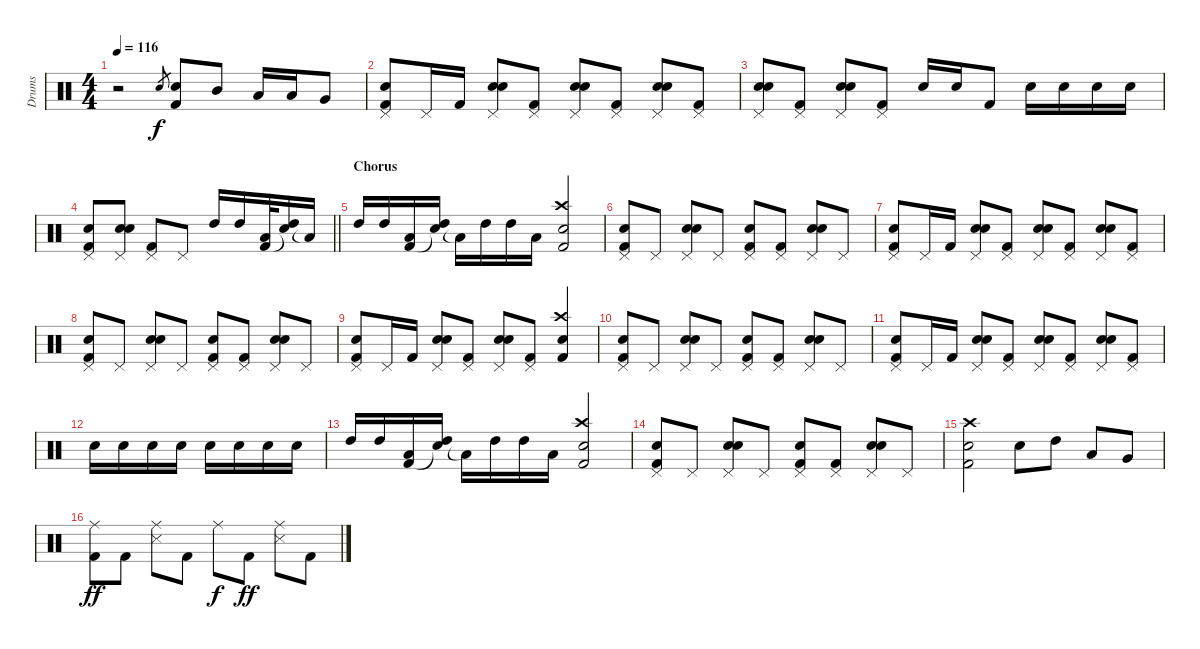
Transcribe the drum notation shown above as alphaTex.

\track ("Drums" "Drums") {instrument percussion}
\staff {score}
\articulation defaults
\ts (4 4)
\tempo 116
\clef neutral
\ks c
r.2{dy f} "Snare (hit) 2".8{gr} ("Snare (hit) 2" "Kick (hit) 2").8 "Mid Tom (hit)".8 "Low Tom (hit)".16 "Low Tom (hit)".16 "Very Low Tom (hit)".8 |
("Hand Clap (hit)" "Pedal Hi-Hat (hit)" "Kick (hit) 2").8{volume 16} "Pedal Hi-Hat (hit)".16{volume 16} "Kick (hit) 2".16{volume 16} ("Hand Clap (hit)" "Pedal Hi-Hat (hit)" "Snare (hit) 2").8{volume 16} ("Pedal Hi-Hat (hit)" "Kick (hit) 2").8{volume 16} ("Hand Clap (hit)" "Pedal Hi-Hat (hit)" "Snare (hit) 2").8{volume 16} ("Pedal Hi-Hat (hit)" "Kick (hit) 2").8{volume 16} ("Hand Clap (hit)" "Pedal Hi-Hat (hit)" "Snare (hit) 2").8 ("Pedal Hi-Hat (hit)" "Kick (hit) 2").8 |
("Hand Clap (hit)" "Pedal Hi-Hat (hit)" "Snare (hit) 2").8 ("Pedal Hi-Hat (hit)" "Kick (hit) 2").8 ("Hand Clap (hit)" "Pedal Hi-Hat (hit)" "Snare (hit) 2").8 ("Pedal Hi-Hat (hit)" "Kick (hit) 2").8 "Snare (hit) 2".16 "Snare (hit) 2".16 "Kick (hit) 2".8 "Snare (hit) 2".16 "Snare (hit) 2".16 "Snare (hit) 2".16 "Snare (hit) 2".16 |
\barLineRight lightlight
("Hand Clap (hit)" "Pedal Hi-Hat (hit)" "Kick (hit) 2").8 ("Hand Clap (hit)" "Pedal Hi-Hat (hit)" "Snare (hit) 2").8 ("Pedal Hi-Hat (hit)" "Kick (hit) 2").8 "Pedal Hi-Hat (hit)".8 "High Tom (hit)".16 "High Tom (hit)".16 ("Low Tom (hit)" "Kick (hit) 2").32 ("High Tom (hit)" "Snare (hit)"{t}).16 "Low Tom (hit)"{t}.16 |
\section ("" "Chorus")
"High Tom (hit)".16 "High Tom (hit)".16 ("Low Tom (hit)" "Kick (hit) 2").16 ("High Tom (hit)" "Snare (hit)"{t}).16 "Low Tom (hit)"{t}.16 "High Tom (hit)".16 "High Tom (hit)".16 "Low Tom (hit)".16 ("Crash high (hit)" "Electric Snare (hit)" "Kick (hit) 2").2 |
("Hand Clap (hit)" "Pedal Hi-Hat (hit)" "Kick (hit) 2").8 "Pedal Hi-Hat (hit)".8 ("Hand Clap (hit)" "Pedal Hi-Hat (hit)" "Snare (hit) 2").8 "Pedal Hi-Hat (hit)".8 ("Hand Clap (hit)" "Pedal Hi-Hat (hit)" "Kick (hit) 2").8 ("Pedal Hi-Hat (hit)" "Kick (hit) 2").8 ("Hand Clap (hit)" "Pedal Hi-Hat (hit)" "Snare (hit) 2").8 "Pedal Hi-Hat (hit)".8{volume 16} |
("Hand Clap (hit)" "Pedal Hi-Hat (hit)" "Kick (hit) 2").8 "Pedal Hi-Hat (hit)".16 "Kick (hit) 2".16 ("Hand Clap (hit)" "Pedal Hi-Hat (hit)" "Snare (hit) 2").8 ("Pedal Hi-Hat (hit)" "Kick (hit) 2").8 ("Hand Clap (hit)" "Pedal Hi-Hat (hit)" "Snare (hit) 2").8 ("Pedal Hi-Hat (hit)" "Kick (hit) 2").8 ("Hand Clap (hit)" "Pedal Hi-Hat (hit)" "Snare (hit) 2").8 ("Pedal Hi-Hat (hit)" "Kick (hit) 2").8 |
("Hand Clap (hit)" "Pedal Hi-Hat (hit)" "Kick (hit) 2").8 "Pedal Hi-Hat (hit)".8 ("Hand Clap (hit)" "Pedal Hi-Hat (hit)" "Snare (hit) 2").8 "Pedal Hi-Hat (hit)".8 ("Hand Clap (hit)" "Pedal Hi-Hat (hit)" "Kick (hit) 2").8 ("Pedal Hi-Hat (hit)" "Kick (hit) 2").8 ("Hand Clap (hit)" "Pedal Hi-Hat (hit)" "Snare (hit) 2").8 "Pedal Hi-Hat (hit)".8{volume 16} |
("Hand Clap (hit)" "Pedal Hi-Hat (hit)" "Kick (hit) 2").8 "Pedal Hi-Hat (hit)".16 "Kick (hit) 2".16 ("Hand Clap (hit)" "Pedal Hi-Hat (hit)" "Snare (hit) 2").8 ("Pedal Hi-Hat (hit)" "Kick (hit) 2").8 ("Hand Clap (hit)" "Pedal Hi-Hat (hit)" "Snare (hit) 2").8 ("Pedal Hi-Hat (hit)" "Kick (hit) 2").8 ("Crash high (hit)" "Electric Snare (hit)" "Kick (hit) 2").4 |
("Hand Clap (hit)" "Pedal Hi-Hat (hit)" "Kick (hit) 2").8 "Pedal Hi-Hat (hit)".8 ("Hand Clap (hit)" "Pedal Hi-Hat (hit)" "Snare (hit) 2").8 "Pedal Hi-Hat (hit)".8 ("Hand Clap (hit)" "Pedal Hi-Hat (hit)" "Kick (hit) 2").8 ("Pedal Hi-Hat (hit)" "Kick (hit) 2").8 ("Hand Clap (hit)" "Pedal Hi-Hat (hit)" "Snare (hit) 2").8 "Pedal Hi-Hat (hit)".8 |
("Hand Clap (hit)" "Pedal Hi-Hat (hit)" "Kick (hit) 2").8 "Pedal Hi-Hat (hit)".16 "Kick (hit) 2".16 ("Hand Clap (hit)" "Pedal Hi-Hat (hit)" "Snare (hit) 2").8 ("Pedal Hi-Hat (hit)" "Kick (hit) 2").8 ("Hand Clap (hit)" "Pedal Hi-Hat (hit)" "Snare (hit) 2").8 ("Pedal Hi-Hat (hit)" "Kick (hit) 2").8 ("Hand Clap (hit)" "Pedal Hi-Hat (hit)" "Snare (hit) 2").8 ("Pedal Hi-Hat (hit)" "Kick (hit) 2").8 |
"Snare (hit) 2".16 "Snare (hit) 2".16 "Snare (hit) 2".16 "Snare (hit) 2".16 "Snare (hit) 2".16 "Snare (hit) 2".16 "Snare (hit) 2".16 "Snare (hit) 2".16 |
"High Tom (hit)".16 "High Tom (hit)".16 ("Low Tom (hit)" "Kick (hit) 2").16 ("High Tom (hit)" "Snare (hit)"{t}).16 "Low Tom (hit)"{t}.16 "High Tom (hit)".16 "High Tom (hit)".16 "Low Tom (hit)".16{volume 16} ("Crash high (hit)" "Electric Snare (hit)" "Kick (hit) 2").2 |
("Hand Clap (hit)" "Pedal Hi-Hat (hit)" "Kick (hit) 2").8 "Pedal Hi-Hat (hit)".8 ("Hand Clap (hit)" "Pedal Hi-Hat (hit)" "Snare (hit) 2").8 "Pedal Hi-Hat (hit)".8 ("Hand Clap (hit)" "Pedal Hi-Hat (hit)" "Kick (hit) 2").8 ("Pedal Hi-Hat (hit)" "Kick (hit) 2").8 ("Hand Clap (hit)" "Pedal Hi-Hat (hit)" "Snare (hit) 2").8 "Pedal Hi-Hat (hit)".8 |
("Crash high (hit)" "Snare (hit) 2" "Kick (hit) 2").2 "Snare (hit) 2".8 "High Tom (hit)".8 "Low Tom (hit)".8 "Very Low Tom (hit)".8 |
("Ride (middle)" "Kick (hit) 2").8{dy ff} "Kick (hit) 2".8 ("Ride (middle)" "Snare (side stick) 3").8 "Kick (hit) 2".8 "Ride (middle)".8{dy f} "Kick (hit) 2".8{dy ff} ("Ride (middle)" "Snare (side stick) 3").8 "Kick (hit) 2".8
